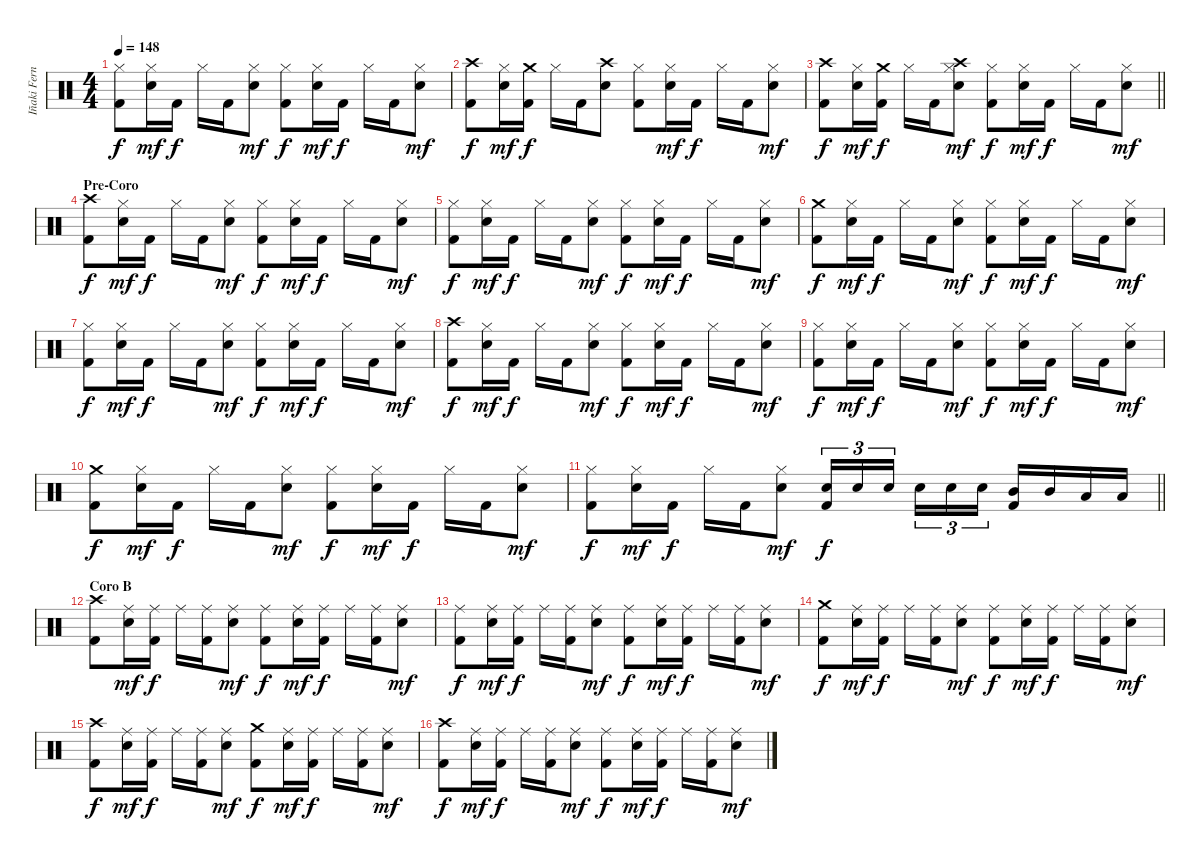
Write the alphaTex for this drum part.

\track ("Iñaki Fernández" "Iñaki Fern") {instrument percussion}
\staff {score}
\articulation defaults
\ts (4 4)
\tempo 148
\clef neutral
\ks c
("Hi-Hat (closed)" "Kick (hit) 2").8{dy f} ("Hi-Hat (closed)" "Snare (hit) 2").16{dy mf} "Kick (hit) 2".16{dy f} "Hi-Hat (closed)".16 "Kick (hit) 2".16 ("Hi-Hat (closed)" "Snare (hit) 2").8{dy mf} ("Hi-Hat (closed)" "Kick (hit) 2").8{dy f} ("Hi-Hat (closed)" "Snare (hit) 2").16{dy mf} "Kick (hit) 2".16{dy f} "Hi-Hat (closed)".16 "Kick (hit) 2".16 ("Hi-Hat (closed)" "Snare (hit) 2").8{dy mf} |
("Crash high (hit)" "Kick (hit) 2").8{dy f} ("Hi-Hat (closed)" "Snare (hit) 2").16{dy mf} ("Crash medium (hit)" "Kick (hit) 2").16{dy f} "Hi-Hat (closed)".16 "Kick (hit) 2".16 ("Snare (hit) 2" "Crash high (hit)").8 ("Hi-Hat (closed)" "Kick (hit) 2").8 ("Hi-Hat (closed)" "Snare (hit) 2").16{dy mf} "Kick (hit) 2".16{dy f} "Hi-Hat (closed)".16 "Kick (hit) 2".16 ("Hi-Hat (closed)" "Snare (hit) 2").8{dy mf} |
\barLineRight lightlight
("Crash high (hit)" "Kick (hit) 2").8{dy f} ("Hi-Hat (closed)" "Snare (hit) 2").16{dy mf} ("Crash medium (hit)" "Kick (hit) 2").16{dy f} "Hi-Hat (closed)".16 "Kick (hit) 2".16 ("Hi-Hat (closed)" "Snare (hit) 2" "Crash high (hit)").8{dy mf} ("Hi-Hat (closed)" "Kick (hit) 2").8{dy f} ("Hi-Hat (closed)" "Snare (hit) 2").16{dy mf} "Kick (hit) 2".16{dy f} "Hi-Hat (closed)".16 "Kick (hit) 2".16 ("Hi-Hat (closed)" "Snare (hit) 2").8{dy mf} |
\section ("" "Pre-Coro")
("Crash high (hit)" "Kick (hit) 2").8{dy f} ("Hi-Hat (closed)" "Snare (hit) 2").16{dy mf} "Kick (hit) 2".16{dy f} "Hi-Hat (closed)".16 "Kick (hit) 2".16 ("Hi-Hat (closed)" "Snare (hit) 2").8{dy mf} ("Hi-Hat (closed)" "Kick (hit) 2").8{dy f} ("Hi-Hat (closed)" "Snare (hit) 2").16{dy mf} "Kick (hit) 2".16{dy f} "Hi-Hat (closed)".16 "Kick (hit) 2".16 ("Hi-Hat (closed)" "Snare (hit) 2").8{dy mf} |
("Hi-Hat (closed)" "Kick (hit) 2").8{dy f} ("Hi-Hat (closed)" "Snare (hit) 2").16{dy mf} "Kick (hit) 2".16{dy f} "Hi-Hat (closed)".16 "Kick (hit) 2".16 ("Hi-Hat (closed)" "Snare (hit) 2").8{dy mf} ("Hi-Hat (closed)" "Kick (hit) 2").8{dy f} ("Hi-Hat (closed)" "Snare (hit) 2").16{dy mf} "Kick (hit) 2".16{dy f} "Hi-Hat (closed)".16 "Kick (hit) 2".16 ("Hi-Hat (closed)" "Snare (hit) 2").8{dy mf} |
("Crash medium (hit)" "Kick (hit) 2").8{dy f} ("Hi-Hat (closed)" "Snare (hit) 2").16{dy mf} "Kick (hit) 2".16{dy f} "Hi-Hat (closed)".16 "Kick (hit) 2".16 ("Hi-Hat (closed)" "Snare (hit) 2").8{dy mf} ("Hi-Hat (closed)" "Kick (hit) 2").8{dy f} ("Hi-Hat (closed)" "Snare (hit) 2").16{dy mf} "Kick (hit) 2".16{dy f} "Hi-Hat (closed)".16 "Kick (hit) 2".16 ("Hi-Hat (closed)" "Snare (hit) 2").8{dy mf} |
("Hi-Hat (closed)" "Kick (hit) 2").8{dy f} ("Hi-Hat (closed)" "Snare (hit) 2").16{dy mf} "Kick (hit) 2".16{dy f} "Hi-Hat (closed)".16 "Kick (hit) 2".16 ("Hi-Hat (closed)" "Snare (hit) 2").8{dy mf} ("Hi-Hat (closed)" "Kick (hit) 2").8{dy f} ("Hi-Hat (closed)" "Snare (hit) 2").16{dy mf} "Kick (hit) 2".16{dy f} "Hi-Hat (closed)".16 "Kick (hit) 2".16 ("Hi-Hat (closed)" "Snare (hit) 2").8{dy mf} |
("Crash high (hit)" "Kick (hit) 2").8{dy f} ("Hi-Hat (closed)" "Snare (hit) 2").16{dy mf} "Kick (hit) 2".16{dy f} "Hi-Hat (closed)".16 "Kick (hit) 2".16 ("Hi-Hat (closed)" "Snare (hit) 2").8{dy mf} ("Hi-Hat (closed)" "Kick (hit) 2").8{dy f} ("Hi-Hat (closed)" "Snare (hit) 2").16{dy mf} "Kick (hit) 2".16{dy f} "Hi-Hat (closed)".16 "Kick (hit) 2".16 ("Hi-Hat (closed)" "Snare (hit) 2").8{dy mf} |
("Hi-Hat (closed)" "Kick (hit) 2").8{dy f} ("Hi-Hat (closed)" "Snare (hit) 2").16{dy mf} "Kick (hit) 2".16{dy f} "Hi-Hat (closed)".16 "Kick (hit) 2".16 ("Hi-Hat (closed)" "Snare (hit) 2").8{dy mf} ("Hi-Hat (closed)" "Kick (hit) 2").8{dy f} ("Hi-Hat (closed)" "Snare (hit) 2").16{dy mf} "Kick (hit) 2".16{dy f} "Hi-Hat (closed)".16 "Kick (hit) 2".16 ("Hi-Hat (closed)" "Snare (hit) 2").8{dy mf} |
("Crash medium (hit)" "Kick (hit) 2").8{dy f} ("Hi-Hat (closed)" "Snare (hit) 2").16{dy mf} "Kick (hit) 2".16{dy f} "Hi-Hat (closed)".16 "Kick (hit) 2".16 ("Hi-Hat (closed)" "Snare (hit) 2").8{dy mf} ("Hi-Hat (closed)" "Kick (hit) 2").8{dy f} ("Hi-Hat (closed)" "Snare (hit) 2").16{dy mf} "Kick (hit) 2".16{dy f} "Hi-Hat (closed)".16 "Kick (hit) 2".16 ("Hi-Hat (closed)" "Snare (hit) 2").8{dy mf} |
\barLineRight lightlight
("Hi-Hat (closed)" "Kick (hit) 2").8{dy f} ("Hi-Hat (closed)" "Snare (hit) 2").16{dy mf} "Kick (hit) 2".16{dy f} "Hi-Hat (closed)".16 "Kick (hit) 2".16 ("Hi-Hat (closed)" "Snare (hit) 2").8{dy mf} ("Snare (hit) 2" "Kick (hit) 2").16{tu (3 2) dy f} "Snare (hit) 2".16{tu (3 2)} "Snare (hit) 2".16{tu (3 2) beam splitsecondary} "Snare (hit) 2".16{tu (3 2)} "Snare (hit) 2".16{tu (3 2)} "Snare (hit) 2".16{tu (3 2)} ("Mid Tom (hit)" "Kick (hit) 2").16 "Mid Tom (hit)".16 "Low Tom (hit)".16 "Low Tom (hit)".16 |
\section ("" "Coro B")
("Crash high (hit)" "Kick (hit) 2").8 ("Ride (middle)" "Snare (hit) 2").16{dy mf} ("Ride (middle)" "Kick (hit) 2").16{dy f} "Ride (middle)".16 ("Ride (middle)" "Kick (hit) 2").16 ("Ride (middle)" "Snare (hit) 2").8{dy mf} ("Ride (middle)" "Kick (hit) 2").8{dy f} ("Ride (middle)" "Snare (hit) 2").16{dy mf} ("Ride (middle)" "Kick (hit) 2").16{dy f} "Ride (middle)".16 ("Ride (middle)" "Kick (hit) 2").16 ("Ride (middle)" "Snare (hit) 2").8{dy mf} |
("Ride (middle)" "Kick (hit) 2").8{dy f} ("Ride (middle)" "Snare (hit) 2").16{dy mf} ("Ride (middle)" "Kick (hit) 2").16{dy f} "Ride (middle)".16 ("Ride (middle)" "Kick (hit) 2").16 ("Ride (middle)" "Snare (hit) 2").8{dy mf} ("Ride (middle)" "Kick (hit) 2").8{dy f} ("Ride (middle)" "Snare (hit) 2").16{dy mf} ("Ride (middle)" "Kick (hit) 2").16{dy f} "Ride (middle)".16 ("Ride (middle)" "Kick (hit) 2").16 ("Ride (middle)" "Snare (hit) 2").8{dy mf} |
("Crash medium (hit)" "Kick (hit) 2").8{dy f} ("Ride (middle)" "Snare (hit) 2").16{dy mf} ("Ride (middle)" "Kick (hit) 2").16{dy f} "Ride (middle)".16 ("Ride (middle)" "Kick (hit) 2").16 ("Ride (middle)" "Snare (hit) 2").8{dy mf} ("Ride (middle)" "Kick (hit) 2").8{dy f} ("Ride (middle)" "Snare (hit) 2").16{dy mf} ("Ride (middle)" "Kick (hit) 2").16{dy f} "Ride (middle)".16 ("Ride (middle)" "Kick (hit) 2").16 ("Ride (middle)" "Snare (hit) 2").8{dy mf} |
("Crash high (hit)" "Kick (hit) 2").8{dy f} ("Ride (middle)" "Snare (hit) 2").16{dy mf} ("Ride (middle)" "Kick (hit) 2").16{dy f} "Ride (middle)".16 ("Ride (middle)" "Kick (hit) 2").16 ("Ride (middle)" "Snare (hit) 2").8{dy mf} ("Crash medium (hit)" "Kick (hit) 2").8{dy f} ("Ride (middle)" "Snare (hit) 2").16{dy mf} ("Ride (middle)" "Kick (hit) 2").16{dy f} "Ride (middle)".16 ("Ride (middle)" "Kick (hit) 2").16 ("Ride (middle)" "Snare (hit) 2").8{dy mf} |
("Crash high (hit)" "Kick (hit) 2").8{dy f} ("Ride (middle)" "Snare (hit) 2").16{dy mf} ("Ride (middle)" "Kick (hit) 2").16{dy f} "Ride (middle)".16 ("Ride (middle)" "Kick (hit) 2").16 ("Ride (middle)" "Snare (hit) 2").8{dy mf} ("Ride (middle)" "Kick (hit) 2").8{dy f} ("Ride (middle)" "Snare (hit) 2").16{dy mf} ("Ride (middle)" "Kick (hit) 2").16{dy f} "Ride (middle)".16 ("Ride (middle)" "Kick (hit) 2").16 ("Ride (middle)" "Snare (hit) 2").8{dy mf}
